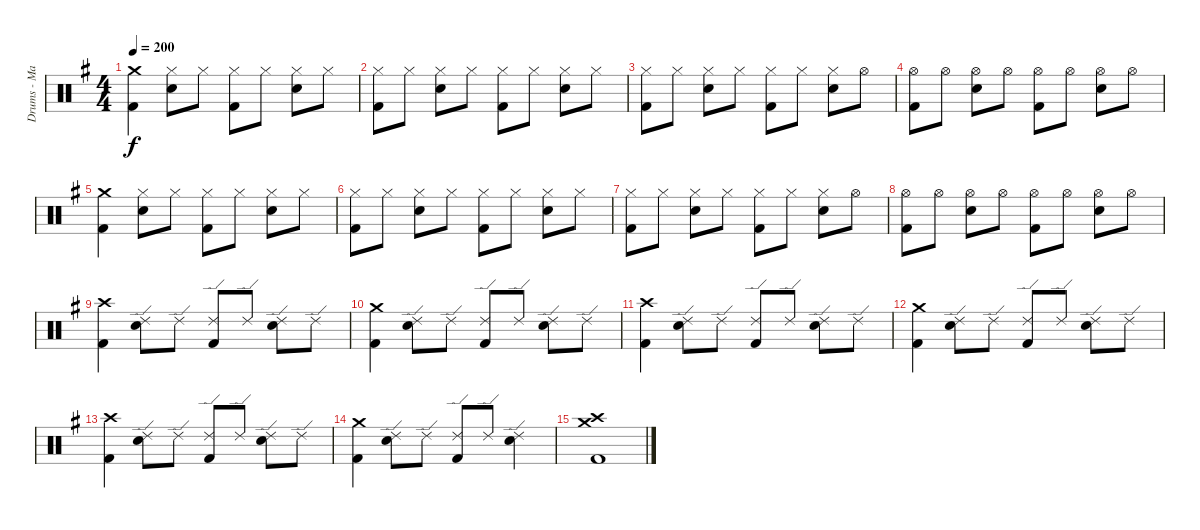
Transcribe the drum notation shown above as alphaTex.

\track ("Drums - Marky Ramone" "Drums - Ma") {instrument percussion}
\staff {score}
\articulation defaults
\ts (4 4)
\tempo 200
\clef neutral
\ks g
("Crash medium (hit)" "Kick (hit) 2").4{dy f} ("Hi-Hat (closed)" "Snare (hit) 2").8 "Hi-Hat (closed)".8 ("Hi-Hat (closed)" "Kick (hit) 2").8 "Hi-Hat (closed)".8 ("Hi-Hat (closed)" "Snare (hit) 2").8 "Hi-Hat (closed)".8 |
("Hi-Hat (closed)" "Kick (hit) 2").8 "Hi-Hat (closed)".8 ("Hi-Hat (closed)" "Snare (hit) 2").8 "Hi-Hat (closed)".8 ("Hi-Hat (closed)" "Kick (hit) 2").8 "Hi-Hat (closed)".8 ("Hi-Hat (closed)" "Snare (hit) 2").8 "Hi-Hat (closed)".8 |
("Hi-Hat (closed)" "Kick (hit) 2").8 "Hi-Hat (closed)".8 ("Hi-Hat (closed)" "Snare (hit) 2").8 "Hi-Hat (closed)".8 ("Hi-Hat (closed)" "Kick (hit) 2").8 "Hi-Hat (closed)".8 ("Hi-Hat (closed)" "Snare (hit) 2").8 "Hi-Hat (open)".8 |
("Hi-Hat (open)" "Kick (hit) 2").8 "Hi-Hat (open)".8 ("Hi-Hat (open)" "Snare (hit) 2").8 "Hi-Hat (open)".8 ("Hi-Hat (open)" "Kick (hit) 2").8 "Hi-Hat (open)".8 ("Hi-Hat (open)" "Snare (hit) 2").8 "Hi-Hat (open)".8 |
("Crash medium (hit)" "Kick (hit) 2").4 ("Hi-Hat (closed)" "Snare (hit) 2").8 "Hi-Hat (closed)".8 ("Hi-Hat (closed)" "Kick (hit) 2").8 "Hi-Hat (closed)".8 ("Hi-Hat (closed)" "Snare (hit) 2").8 "Hi-Hat (closed)".8 |
("Hi-Hat (closed)" "Kick (hit) 2").8 "Hi-Hat (closed)".8 ("Hi-Hat (closed)" "Snare (hit) 2").8 "Hi-Hat (closed)".8 ("Hi-Hat (closed)" "Kick (hit) 2").8 "Hi-Hat (closed)".8 ("Hi-Hat (closed)" "Snare (hit) 2").8 "Hi-Hat (closed)".8 |
("Hi-Hat (closed)" "Kick (hit) 2").8 "Hi-Hat (closed)".8 ("Hi-Hat (closed)" "Snare (hit) 2").8 "Hi-Hat (closed)".8 ("Hi-Hat (closed)" "Kick (hit) 2").8 "Hi-Hat (closed)".8 ("Hi-Hat (closed)" "Snare (hit) 2").8 "Hi-Hat (open)".8 |
("Hi-Hat (open)" "Kick (hit) 2").8 "Hi-Hat (open)".8 ("Hi-Hat (open)" "Snare (hit) 2").8 "Hi-Hat (open)".8 ("Hi-Hat (open)" "Kick (hit) 2").8 "Hi-Hat (open)".8 ("Hi-Hat (open)" "Snare (hit) 2").8 "Hi-Hat (open)".8 |
("Crash high (hit)" "Kick (hit) 2").4 ("Ride (edge) 2" "Snare (hit) 2").8 "Ride (edge) 2".8 ("Ride (edge) 2" "Kick (hit) 2").8 "Ride (edge) 2".8 ("Ride (edge) 2" "Snare (hit) 2").8 "Ride (edge) 2".8 |
("Crash medium (hit)" "Kick (hit) 2").4 ("Ride (edge) 2" "Snare (hit) 2").8 "Ride (edge) 2".8 ("Ride (edge) 2" "Kick (hit) 2").8 "Ride (edge) 2".8 ("Ride (edge) 2" "Snare (hit) 2").8 "Ride (edge) 2".8 |
("Crash high (hit)" "Kick (hit) 2").4 ("Ride (edge) 2" "Snare (hit) 2").8 "Ride (edge) 2".8 ("Ride (edge) 2" "Kick (hit) 2").8 "Ride (edge) 2".8 ("Ride (edge) 2" "Snare (hit) 2").8 "Ride (edge) 2".8 |
("Crash medium (hit)" "Kick (hit) 2").4 ("Ride (edge) 2" "Snare (hit) 2").8 "Ride (edge) 2".8 ("Ride (edge) 2" "Kick (hit) 2").8 "Ride (edge) 2".8 ("Ride (edge) 2" "Snare (hit) 2").8 "Ride (edge) 2".8 |
("Crash high (hit)" "Kick (hit) 2").4 ("Ride (edge) 2" "Snare (hit) 2").8 "Ride (edge) 2".8 ("Ride (edge) 2" "Kick (hit) 2").8 "Ride (edge) 2".8 ("Ride (edge) 2" "Snare (hit) 2").8 "Ride (edge) 2".8 |
("Crash medium (hit)" "Kick (hit) 2").4 ("Ride (edge) 2" "Snare (hit) 2").8 "Ride (edge) 2".8 ("Ride (edge) 2" "Kick (hit) 2").8 "Ride (edge) 2".8 ("Ride (edge) 2" "Snare (hit) 2").4 |
("Crash high (hit)" "Crash medium (hit)" "Kick (hit) 2").1
